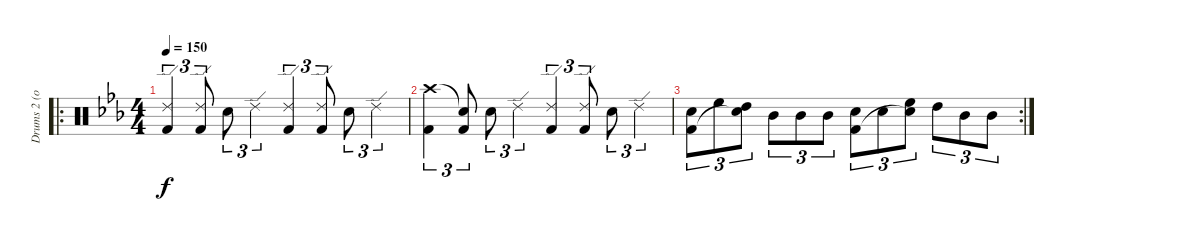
\track ("Drums 2 (optional)" "Drums 2 (o") {instrument percussion}
\staff {score}
\articulation defaults
\ro
\ts (4 4)
\tempo 150
\clef neutral
\ks eb
("Ride (edge) 2" "Kick (hit) 2").4{tu (3 2) dy f} ("Ride (edge) 2" "Kick (hit) 2").8{tu (3 2)} "Snare (hit) 2".8{tu (3 2)} "Ride (edge) 2".4{tu (3 2)} ("Ride (edge) 2" "Kick (hit) 2").4{tu (3 2)} ("Ride (edge) 2" "Kick (hit) 2").8{tu (3 2)} "Snare (hit) 2".8{tu (3 2)} "Ride (edge) 2".4{tu (3 2)} |
("Crash high (hit)" "Kick (hit) 2").4{tu (3 2)} ("Snare (hit)"{t} "Kick (hit) 2").8{tu (3 2)} "Snare (hit) 2".8{tu (3 2)} "Ride (edge) 2".4{tu (3 2)} ("Ride (edge) 2" "Kick (hit) 2").4{tu (3 2)} ("Ride (edge) 2" "Kick (hit) 2").8{tu (3 2)} "Snare (hit) 2".8{tu (3 2)} "Ride (edge) 2".4{tu (3 2)} |
\rc 2
("Snare (hit) 2" "Kick (hit) 2").8{tu (3 2)} "High Floor Tom (hit)".8{tu (3 2)} ("High Tom (hit)" "Snare (hit)"{t}).8{tu (3 2)} "Mid Tom (hit)".8{tu (3 2)} "Mid Tom (hit)".8{tu (3 2)} "Mid Tom (hit)".8{tu (3 2)} ("Snare (hit) 2" "Kick (hit) 2").8{tu (3 2)} "Snare (hit) 2".8{tu (3 2)} ("High Floor Tom (hit)" "Snare (hit)"{t}).8{tu (3 2)} "High Tom (hit)".8{tu (3 2)} "Mid Tom (hit)".8{tu (3 2)} "Mid Tom (hit)".8{tu (3 2)}
